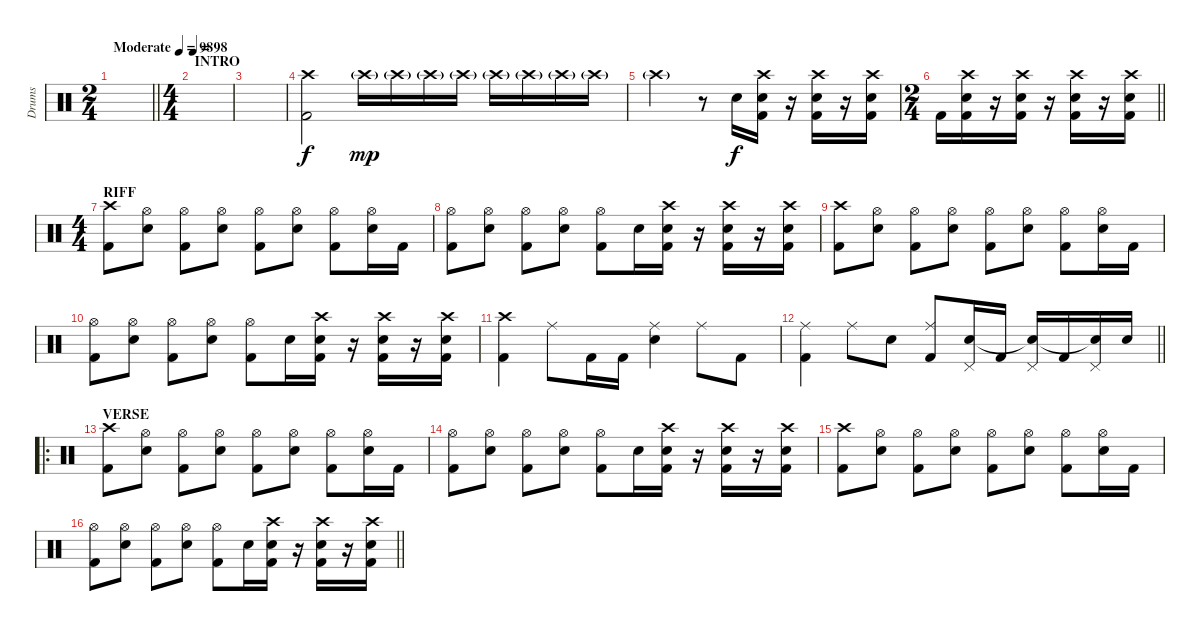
\track ("Drums" "Drums") {instrument percussion}
\staff
\articulation defaults
\ts (2 4)
\tempo (98 "Moderate")
\clef neutral
\barLineRight lightlight
\ks c
|
\ts (4 4)
\section ("" "INTRO")
\tempo 98
|
|
("Crash high (hit)" "Kick (hit) 2").2 "Crash high (hit)"{g}.16{dy mp} "Crash high (hit)"{g}.16 "Crash high (hit)"{g}.16 "Crash high (hit)"{g}.16 "Crash high (hit)"{g}.16 "Crash high (hit)"{g}.16 "Crash high (hit)"{g}.16 "Crash high (hit)"{g}.16 |
"Crash high (hit)"{g}.2 r.8 "Snare (hit) 2".16{dy f} ("Crash high (hit)" "Snare (hit) 2" "Kick (hit) 2").16 r.16 ("Crash high (hit)" "Snare (hit) 2" "Kick (hit) 2").16 r.16 ("Crash high (hit)" "Snare (hit) 2" "Kick (hit) 2").16 |
\ts (2 4)
\barLineRight lightlight "Kick (hit) 2".16
("Crash high (hit)" "Snare (hit) 2" "Kick (hit) 2").16 r.16 ("Crash high (hit)" "Snare (hit) 2" "Kick (hit) 2").16 r.16 ("Crash high (hit)" "Snare (hit) 2" "Kick (hit) 2").16 r.16 ("Crash high (hit)" "Snare (hit) 2" "Kick (hit) 2").16 |
\ts (4 4)
\section ("" "RIFF")
("Crash high (hit)" "Kick (hit) 2").8 ("Hi-Hat (open)" "Snare (hit) 2").8 ("Hi-Hat (open)" "Kick (hit) 2").8 ("Hi-Hat (open)" "Snare (hit) 2").8 ("Hi-Hat (open)" "Kick (hit) 2").8 ("Hi-Hat (open)" "Snare (hit) 2").8 ("Hi-Hat (open)" "Kick (hit) 2").8 ("Hi-Hat (open)" "Snare (hit) 2").16 "Kick (hit) 2".16 |
("Hi-Hat (open)" "Kick (hit) 2").8 ("Hi-Hat (open)" "Snare (hit) 2").8 ("Hi-Hat (open)" "Kick (hit) 2").8 ("Hi-Hat (open)" "Snare (hit) 2").8 ("Hi-Hat (open)" "Kick (hit) 2").8 "Snare (hit) 2".16 ("Crash high (hit)" "Snare (hit) 2" "Kick (hit) 2").16 r.16 ("Crash high (hit)" "Snare (hit) 2" "Kick (hit) 2").16 r.16 ("Crash high (hit)" "Snare (hit) 2" "Kick (hit) 2").16 |
("Crash high (hit)" "Kick (hit) 2").8 ("Hi-Hat (open)" "Snare (hit) 2").8 ("Hi-Hat (open)" "Kick (hit) 2").8 ("Hi-Hat (open)" "Snare (hit) 2").8 ("Hi-Hat (open)" "Kick (hit) 2").8 ("Hi-Hat (open)" "Snare (hit) 2").8 ("Hi-Hat (open)" "Kick (hit) 2").8 ("Hi-Hat (open)" "Snare (hit) 2").16 "Kick (hit) 2".16 |
("Hi-Hat (open)" "Kick (hit) 2").8 ("Hi-Hat (open)" "Snare (hit) 2").8 ("Hi-Hat (open)" "Kick (hit) 2").8 ("Hi-Hat (open)" "Snare (hit) 2").8 ("Hi-Hat (open)" "Kick (hit) 2").8 "Snare (hit) 2".16 ("Crash high (hit)" "Snare (hit) 2" "Kick (hit) 2").16 r.16 ("Crash high (hit)" "Snare (hit) 2" "Kick (hit) 2").16 r.16 ("Crash high (hit)" "Snare (hit) 2" "Kick (hit) 2").16 |
("Crash high (hit)" "Kick (hit) 2").4 "Ride (middle)".8 "Kick (hit) 2".16 "Kick (hit) 2".16 ("Ride (middle)" "Snare (hit) 2").4 "Ride (middle)".8 "Kick (hit) 2".8 |
\barLineRight lightlight
("Ride (middle)" "Kick (hit) 2").4 "Ride (middle)".8 "Snare (hit) 2".8 ("Ride (middle)" "Kick (hit) 2").8 ("Pedal Hi-Hat (hit)" "Snare (hit) 2").16 "Kick (hit) 2".16 ("Pedal Hi-Hat (hit)" "Snare (hit)"{t}).16 "Kick (hit) 2".16 ("Pedal Hi-Hat (hit)" "Snare (hit)"{t}).16 "Snare (hit) 2".16 |
\ro
\section ("" "VERSE")
("Crash high (hit)" "Kick (hit) 2").8 ("Hi-Hat (open)" "Snare (hit) 2").8 ("Hi-Hat (open)" "Kick (hit) 2").8 ("Hi-Hat (open)" "Snare (hit) 2").8 ("Hi-Hat (open)" "Kick (hit) 2").8 ("Hi-Hat (open)" "Snare (hit) 2").8 ("Hi-Hat (open)" "Kick (hit) 2").8 ("Hi-Hat (open)" "Snare (hit) 2").16 "Kick (hit) 2".16 |
("Hi-Hat (open)" "Kick (hit) 2").8 ("Hi-Hat (open)" "Snare (hit) 2").8 ("Hi-Hat (open)" "Kick (hit) 2").8 ("Hi-Hat (open)" "Snare (hit) 2").8 ("Hi-Hat (open)" "Kick (hit) 2").8 "Snare (hit) 2".16 ("Crash high (hit)" "Snare (hit) 2" "Kick (hit) 2").16 r.16 ("Crash high (hit)" "Snare (hit) 2" "Kick (hit) 2").16 r.16 ("Crash high (hit)" "Snare (hit) 2" "Kick (hit) 2").16 |
("Crash high (hit)" "Kick (hit) 2").8 ("Hi-Hat (open)" "Snare (hit) 2").8 ("Hi-Hat (open)" "Kick (hit) 2").8 ("Hi-Hat (open)" "Snare (hit) 2").8 ("Hi-Hat (open)" "Kick (hit) 2").8 ("Hi-Hat (open)" "Snare (hit) 2").8 ("Hi-Hat (open)" "Kick (hit) 2").8 ("Hi-Hat (open)" "Snare (hit) 2").16 "Kick (hit) 2".16 |
\barLineRight lightlight
("Hi-Hat (open)" "Kick (hit) 2").8 ("Hi-Hat (open)" "Snare (hit) 2").8 ("Hi-Hat (open)" "Kick (hit) 2").8 ("Hi-Hat (open)" "Snare (hit) 2").8 ("Hi-Hat (open)" "Kick (hit) 2").8 "Snare (hit) 2".16 ("Crash high (hit)" "Snare (hit) 2" "Kick (hit) 2").16 r.16 ("Crash high (hit)" "Snare (hit) 2" "Kick (hit) 2").16 r.16 ("Crash high (hit)" "Snare (hit) 2" "Kick (hit) 2").16
